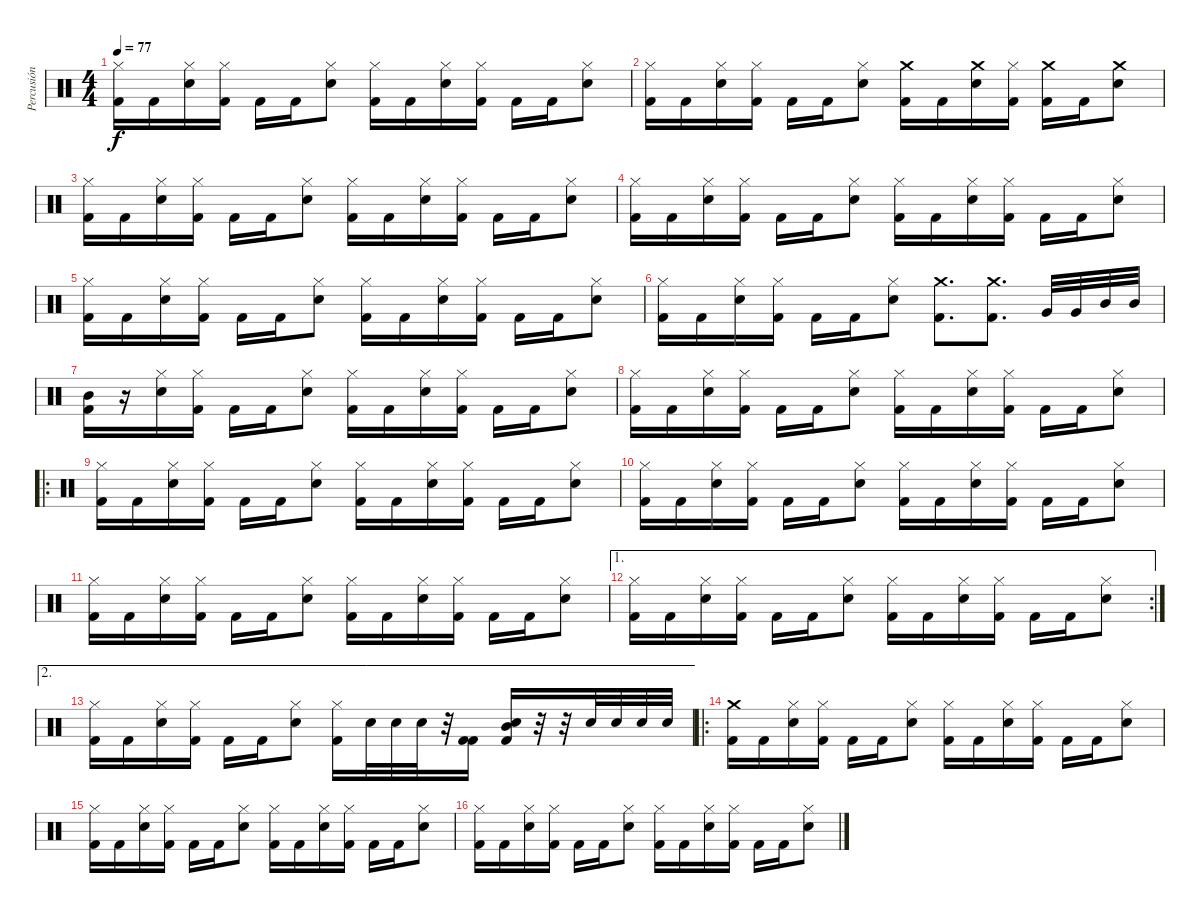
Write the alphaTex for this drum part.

\track ("Percusión" "Percusión") {instrument percussion}
\staff {score}
\articulation defaults
\ts (4 4)
\tempo 77
\clef neutral
\ks c
("Kick (hit) 2" "Hi-Hat (closed)").16{dy f} "Kick (hit) 2".16 ("Electric Snare (hit)" "Hi-Hat (closed)").16 ("Kick (hit) 2" "Hi-Hat (closed)").16 "Kick (hit) 2".16 "Kick (hit) 2".16 ("Electric Snare (hit)" "Hi-Hat (closed)").8 ("Kick (hit) 2" "Hi-Hat (closed)").16 "Kick (hit) 2".16 ("Electric Snare (hit)" "Hi-Hat (closed)").16 ("Kick (hit) 2" "Hi-Hat (closed)").16 "Kick (hit) 2".16 "Kick (hit) 2".16 ("Electric Snare (hit)" "Hi-Hat (closed)").8 |
("Kick (hit) 2" "Hi-Hat (closed)").16 "Kick (hit) 2".16 ("Electric Snare (hit)" "Hi-Hat (closed)").16 ("Kick (hit) 2" "Hi-Hat (closed)").16 "Kick (hit) 2".16 "Kick (hit) 2".16 ("Electric Snare (hit)" "Hi-Hat (closed)").8 ("Kick (hit) 2" "Crash medium (hit)").16 "Kick (hit) 2".16 ("Electric Snare (hit)" "Crash medium (hit)").16 ("Kick (hit) 2" "Hi-Hat (closed)").16 ("Kick (hit) 2" "Crash medium (hit)").16 "Kick (hit) 2".16 ("Electric Snare (hit)" "Crash medium (hit)").8 |
("Kick (hit) 2" "Hi-Hat (closed)").16 "Kick (hit) 2".16 ("Electric Snare (hit)" "Hi-Hat (closed)").16 ("Kick (hit) 2" "Hi-Hat (closed)").16 "Kick (hit) 2".16 "Kick (hit) 2".16 ("Electric Snare (hit)" "Hi-Hat (closed)").8 ("Kick (hit) 2" "Hi-Hat (closed)").16 "Kick (hit) 2".16 ("Electric Snare (hit)" "Hi-Hat (closed)").16 ("Kick (hit) 2" "Hi-Hat (closed)").16 "Kick (hit) 2".16 "Kick (hit) 2".16 ("Electric Snare (hit)" "Hi-Hat (closed)").8 |
("Kick (hit) 2" "Hi-Hat (closed)").16 "Kick (hit) 2".16 ("Electric Snare (hit)" "Hi-Hat (closed)").16 ("Kick (hit) 2" "Hi-Hat (closed)").16 "Kick (hit) 2".16 "Kick (hit) 2".16 ("Electric Snare (hit)" "Hi-Hat (closed)").8 ("Kick (hit) 2" "Hi-Hat (closed)").16 "Kick (hit) 2".16 ("Electric Snare (hit)" "Hi-Hat (closed)").16 ("Kick (hit) 2" "Hi-Hat (closed)").16 "Kick (hit) 2".16 "Kick (hit) 2".16 ("Electric Snare (hit)" "Hi-Hat (closed)").8 |
("Kick (hit) 2" "Hi-Hat (closed)").16 "Kick (hit) 2".16 ("Electric Snare (hit)" "Hi-Hat (closed)").16 ("Kick (hit) 2" "Hi-Hat (closed)").16 "Kick (hit) 2".16 "Kick (hit) 2".16 ("Electric Snare (hit)" "Hi-Hat (closed)").8 ("Kick (hit) 2" "Hi-Hat (closed)").16 "Kick (hit) 2".16 ("Electric Snare (hit)" "Hi-Hat (closed)").16 ("Kick (hit) 2" "Hi-Hat (closed)").16 "Kick (hit) 2".16 "Kick (hit) 2".16 ("Electric Snare (hit)" "Hi-Hat (closed)").8 |
("Kick (hit) 2" "Hi-Hat (closed)").16 "Kick (hit) 2".16 ("Electric Snare (hit)" "Hi-Hat (closed)").16 ("Kick (hit) 2" "Hi-Hat (closed)").16 "Kick (hit) 2".16 "Kick (hit) 2".16 ("Electric Snare (hit)" "Hi-Hat (closed)").8 ("Kick (hit) 2" "Crash medium (hit)").8{d} ("Kick (hit) 2" "Crash medium (hit)").8{d} "Very Low Tom (hit)".32 "Very Low Tom (hit)".32 "Mid Tom (hit)".32 "Mid Tom (hit)".32 |
("Kick (hit) 2" "Mid Tom (hit)").16 r.16 ("Electric Snare (hit)" "Hi-Hat (closed)").16 ("Kick (hit) 2" "Hi-Hat (closed)").16 "Kick (hit) 2".16 "Kick (hit) 2".16 ("Electric Snare (hit)" "Hi-Hat (closed)").8 ("Kick (hit) 2" "Hi-Hat (closed)").16 "Kick (hit) 2".16 ("Electric Snare (hit)" "Hi-Hat (closed)").16 ("Kick (hit) 2" "Hi-Hat (closed)").16 "Kick (hit) 2".16 "Kick (hit) 2".16 ("Electric Snare (hit)" "Hi-Hat (closed)").8 |
("Kick (hit) 2" "Hi-Hat (closed)").16 "Kick (hit) 2".16 ("Electric Snare (hit)" "Hi-Hat (closed)").16 ("Kick (hit) 2" "Hi-Hat (closed)").16 "Kick (hit) 2".16 "Kick (hit) 2".16 ("Electric Snare (hit)" "Hi-Hat (closed)").8 ("Kick (hit) 2" "Hi-Hat (closed)").16 "Kick (hit) 2".16 ("Electric Snare (hit)" "Hi-Hat (closed)").16 ("Kick (hit) 2" "Hi-Hat (closed)").16 "Kick (hit) 2".16 "Kick (hit) 2".16 ("Electric Snare (hit)" "Hi-Hat (closed)").8 |
\ro
("Kick (hit) 2" "Hi-Hat (closed)").16 "Kick (hit) 2".16 ("Hi-Hat (closed)" "Electric Snare (hit)").16 ("Kick (hit) 2" "Hi-Hat (closed)").16 "Kick (hit) 2".16 "Kick (hit) 2".16 ("Electric Snare (hit)" "Hi-Hat (closed)").8 ("Kick (hit) 2" "Hi-Hat (closed)").16 "Kick (hit) 2".16 ("Electric Snare (hit)" "Hi-Hat (closed)").16 ("Kick (hit) 2" "Hi-Hat (closed)").16 "Kick (hit) 2".16 "Kick (hit) 2".16 ("Electric Snare (hit)" "Hi-Hat (closed)").8 |
("Kick (hit) 2" "Hi-Hat (closed)").16 "Kick (hit) 2".16 ("Electric Snare (hit)" "Hi-Hat (closed)").16 ("Kick (hit) 2" "Hi-Hat (closed)").16 "Kick (hit) 2".16 "Kick (hit) 2".16 ("Electric Snare (hit)" "Hi-Hat (closed)").8 ("Kick (hit) 2" "Hi-Hat (closed)").16 "Kick (hit) 2".16 ("Electric Snare (hit)" "Hi-Hat (closed)").16 ("Kick (hit) 2" "Hi-Hat (closed)").16 "Kick (hit) 2".16 "Kick (hit) 2".16 ("Electric Snare (hit)" "Hi-Hat (closed)").8 |
("Kick (hit) 2" "Hi-Hat (closed)").16 "Kick (hit) 2".16 ("Electric Snare (hit)" "Hi-Hat (closed)").16 ("Kick (hit) 2" "Hi-Hat (closed)").16 "Kick (hit) 2".16 "Kick (hit) 2".16 ("Electric Snare (hit)" "Hi-Hat (closed)").8 ("Kick (hit) 2" "Hi-Hat (closed)").16 "Kick (hit) 2".16 ("Electric Snare (hit)" "Hi-Hat (closed)").16 ("Kick (hit) 2" "Hi-Hat (closed)").16 "Kick (hit) 2".16 "Kick (hit) 2".16 ("Electric Snare (hit)" "Hi-Hat (closed)").8 |
\ae 1
\rc 2
("Kick (hit) 2" "Hi-Hat (closed)").16 "Kick (hit) 2".16 ("Electric Snare (hit)" "Hi-Hat (closed)").16 ("Kick (hit) 2" "Hi-Hat (closed)").16 "Kick (hit) 2".16 "Kick (hit) 2".16 ("Electric Snare (hit)" "Hi-Hat (closed)").8 ("Kick (hit) 2" "Hi-Hat (closed)").16 "Kick (hit) 2".16 ("Electric Snare (hit)" "Hi-Hat (closed)").16 ("Kick (hit) 2" "Hi-Hat (closed)").16 "Kick (hit) 2".16 "Kick (hit) 2".16 ("Electric Snare (hit)" "Hi-Hat (closed)").8 |
\ae 2
("Kick (hit) 2" "Hi-Hat (closed)").16 "Kick (hit) 2".16 ("Electric Snare (hit)" "Hi-Hat (closed)").16 ("Kick (hit) 2" "Hi-Hat (closed)").16 "Kick (hit) 2".16 "Kick (hit) 2".16 ("Electric Snare (hit)" "Hi-Hat (closed)").8 ("Kick (hit) 2" "Hi-Hat (closed)").16 "Electric Snare (hit)".32 "Electric Snare (hit)".32 "Electric Snare (hit)".32 r.32 ("Kick (hit) 2" "Kick (hit) 2").16 ("Mid Tom (hit)" "Electric Snare (hit)" "Kick (hit) 2").16 r.32 r.32 "Electric Snare (hit)".32 "Electric Snare (hit)".32 "Electric Snare (hit)".32 "Electric Snare (hit)".32 |
\ro
("Kick (hit) 2" "Crash medium (hit)").16 "Kick (hit) 2".16 ("Electric Snare (hit)" "Hi-Hat (closed)").16 ("Kick (hit) 2" "Hi-Hat (closed)").16 "Kick (hit) 2".16 "Kick (hit) 2".16 ("Electric Snare (hit)" "Hi-Hat (closed)").8 ("Kick (hit) 2" "Hi-Hat (closed)").16 "Kick (hit) 2".16 ("Electric Snare (hit)" "Hi-Hat (closed)").16 ("Kick (hit) 2" "Hi-Hat (closed)").16 "Kick (hit) 2".16 "Kick (hit) 2".16 ("Electric Snare (hit)" "Hi-Hat (closed)").8 |
("Kick (hit) 2" "Hi-Hat (closed)").16 "Kick (hit) 2".16 ("Electric Snare (hit)" "Hi-Hat (closed)").16 ("Kick (hit) 2" "Hi-Hat (closed)").16 "Kick (hit) 2".16 "Kick (hit) 2".16 ("Electric Snare (hit)" "Hi-Hat (closed)").8 ("Kick (hit) 2" "Hi-Hat (closed)").16 "Kick (hit) 2".16 ("Electric Snare (hit)" "Hi-Hat (closed)").16 ("Kick (hit) 2" "Hi-Hat (closed)").16 "Kick (hit) 2".16 "Kick (hit) 2".16 ("Electric Snare (hit)" "Hi-Hat (closed)").8 |
("Kick (hit) 2" "Hi-Hat (closed)").16 "Kick (hit) 2".16 ("Electric Snare (hit)" "Hi-Hat (closed)").16 ("Kick (hit) 2" "Hi-Hat (closed)").16 "Kick (hit) 2".16 "Kick (hit) 2".16 ("Electric Snare (hit)" "Hi-Hat (closed)").8 ("Kick (hit) 2" "Hi-Hat (closed)").16 "Kick (hit) 2".16 ("Electric Snare (hit)" "Hi-Hat (closed)").16 ("Kick (hit) 2" "Hi-Hat (closed)").16 "Kick (hit) 2".16 "Kick (hit) 2".16 ("Electric Snare (hit)" "Hi-Hat (closed)").8
